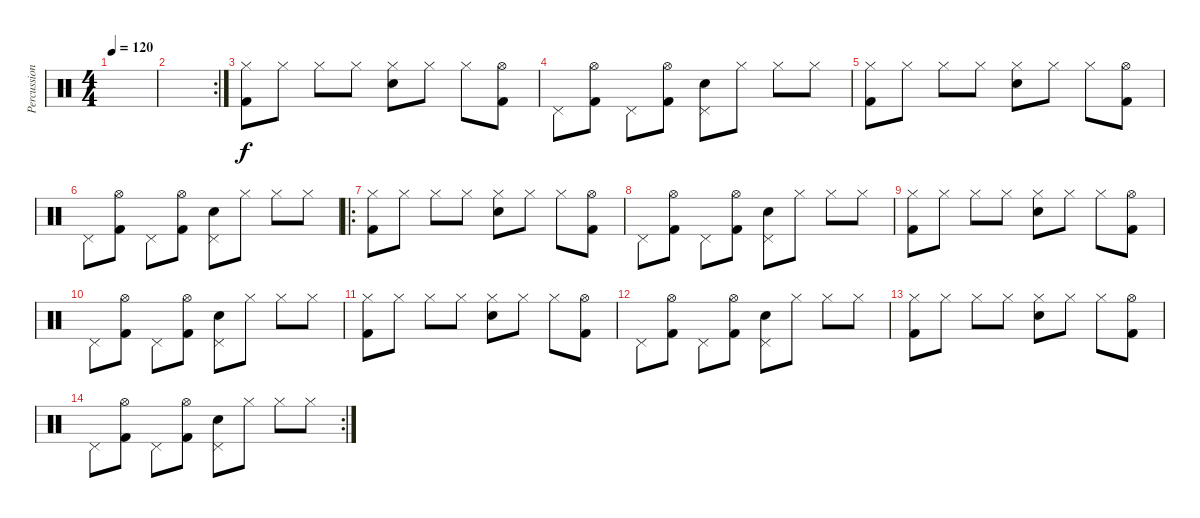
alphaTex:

\track ("Percussion" "Percussion") {instrument percussion}
\staff {score}
\articulation defaults
\ts (4 4)
\tempo 120
\clef neutral
\ks c
|
\rc 2
|
("Hi-Hat (closed)" "Kick (hit) 2").8 "Hi-Hat (closed)".8 "Hi-Hat (closed)".8 "Hi-Hat (closed)".8 ("Hi-Hat (closed)" "Snare (hit) 2").8 "Hi-Hat (closed)".8 "Hi-Hat (closed)".8 ("Hi-Hat (open)" "Kick (hit) 2").8 |
"Pedal Hi-Hat (hit)".8 ("Hi-Hat (open)" "Kick (hit) 2").8 "Pedal Hi-Hat (hit)".8 ("Hi-Hat (open)" "Kick (hit) 2").8 ("Pedal Hi-Hat (hit)" "Snare (hit) 2").8 "Hi-Hat (closed)".8 "Hi-Hat (closed)".8 "Hi-Hat (closed)".8 |
("Hi-Hat (closed)" "Kick (hit) 2").8 "Hi-Hat (closed)".8 "Hi-Hat (closed)".8 "Hi-Hat (closed)".8 ("Hi-Hat (closed)" "Snare (hit) 2").8 "Hi-Hat (closed)".8 "Hi-Hat (closed)".8 ("Hi-Hat (open)" "Kick (hit) 2").8 |
"Pedal Hi-Hat (hit)".8 ("Hi-Hat (open)" "Kick (hit) 2").8 "Pedal Hi-Hat (hit)".8 ("Hi-Hat (open)" "Kick (hit) 2").8 ("Pedal Hi-Hat (hit)" "Snare (hit) 2").8 "Hi-Hat (closed)".8 "Hi-Hat (closed)".8 "Hi-Hat (closed)".8 |
\ro
("Hi-Hat (closed)" "Kick (hit) 2").8 "Hi-Hat (closed)".8 "Hi-Hat (closed)".8 "Hi-Hat (closed)".8 ("Hi-Hat (closed)" "Snare (hit) 2").8 "Hi-Hat (closed)".8 "Hi-Hat (closed)".8 ("Hi-Hat (open)" "Kick (hit) 2").8 |
"Pedal Hi-Hat (hit)".8 ("Hi-Hat (open)" "Kick (hit) 2").8 "Pedal Hi-Hat (hit)".8 ("Hi-Hat (open)" "Kick (hit) 2").8 ("Pedal Hi-Hat (hit)" "Snare (hit) 2").8 "Hi-Hat (closed)".8 "Hi-Hat (closed)".8 "Hi-Hat (closed)".8 |
("Hi-Hat (closed)" "Kick (hit) 2").8 "Hi-Hat (closed)".8 "Hi-Hat (closed)".8 "Hi-Hat (closed)".8 ("Hi-Hat (closed)" "Snare (hit) 2").8 "Hi-Hat (closed)".8 "Hi-Hat (closed)".8 ("Hi-Hat (open)" "Kick (hit) 2").8 |
"Pedal Hi-Hat (hit)".8 ("Hi-Hat (open)" "Kick (hit) 2").8 "Pedal Hi-Hat (hit)".8 ("Hi-Hat (open)" "Kick (hit) 2").8 ("Pedal Hi-Hat (hit)" "Snare (hit) 2").8 "Hi-Hat (closed)".8 "Hi-Hat (closed)".8 "Hi-Hat (closed)".8 |
("Hi-Hat (closed)" "Kick (hit) 2").8 "Hi-Hat (closed)".8 "Hi-Hat (closed)".8 "Hi-Hat (closed)".8 ("Hi-Hat (closed)" "Snare (hit) 2").8 "Hi-Hat (closed)".8 "Hi-Hat (closed)".8 ("Hi-Hat (open)" "Kick (hit) 2").8 |
"Pedal Hi-Hat (hit)".8 ("Hi-Hat (open)" "Kick (hit) 2").8 "Pedal Hi-Hat (hit)".8 ("Hi-Hat (open)" "Kick (hit) 2").8 ("Pedal Hi-Hat (hit)" "Snare (hit) 2").8 "Hi-Hat (closed)".8 "Hi-Hat (closed)".8 "Hi-Hat (closed)".8 |
("Hi-Hat (closed)" "Kick (hit) 2").8 "Hi-Hat (closed)".8 "Hi-Hat (closed)".8 "Hi-Hat (closed)".8 ("Hi-Hat (closed)" "Snare (hit) 2").8 "Hi-Hat (closed)".8 "Hi-Hat (closed)".8 ("Hi-Hat (open)" "Kick (hit) 2").8 |
\rc 2 "Pedal Hi-Hat (hit)".8
("Hi-Hat (open)" "Kick (hit) 2").8 "Pedal Hi-Hat (hit)".8 ("Hi-Hat (open)" "Kick (hit) 2").8 ("Pedal Hi-Hat (hit)" "Snare (hit) 2").8 "Hi-Hat (closed)".8 "Hi-Hat (closed)".8 "Hi-Hat (closed)".8
